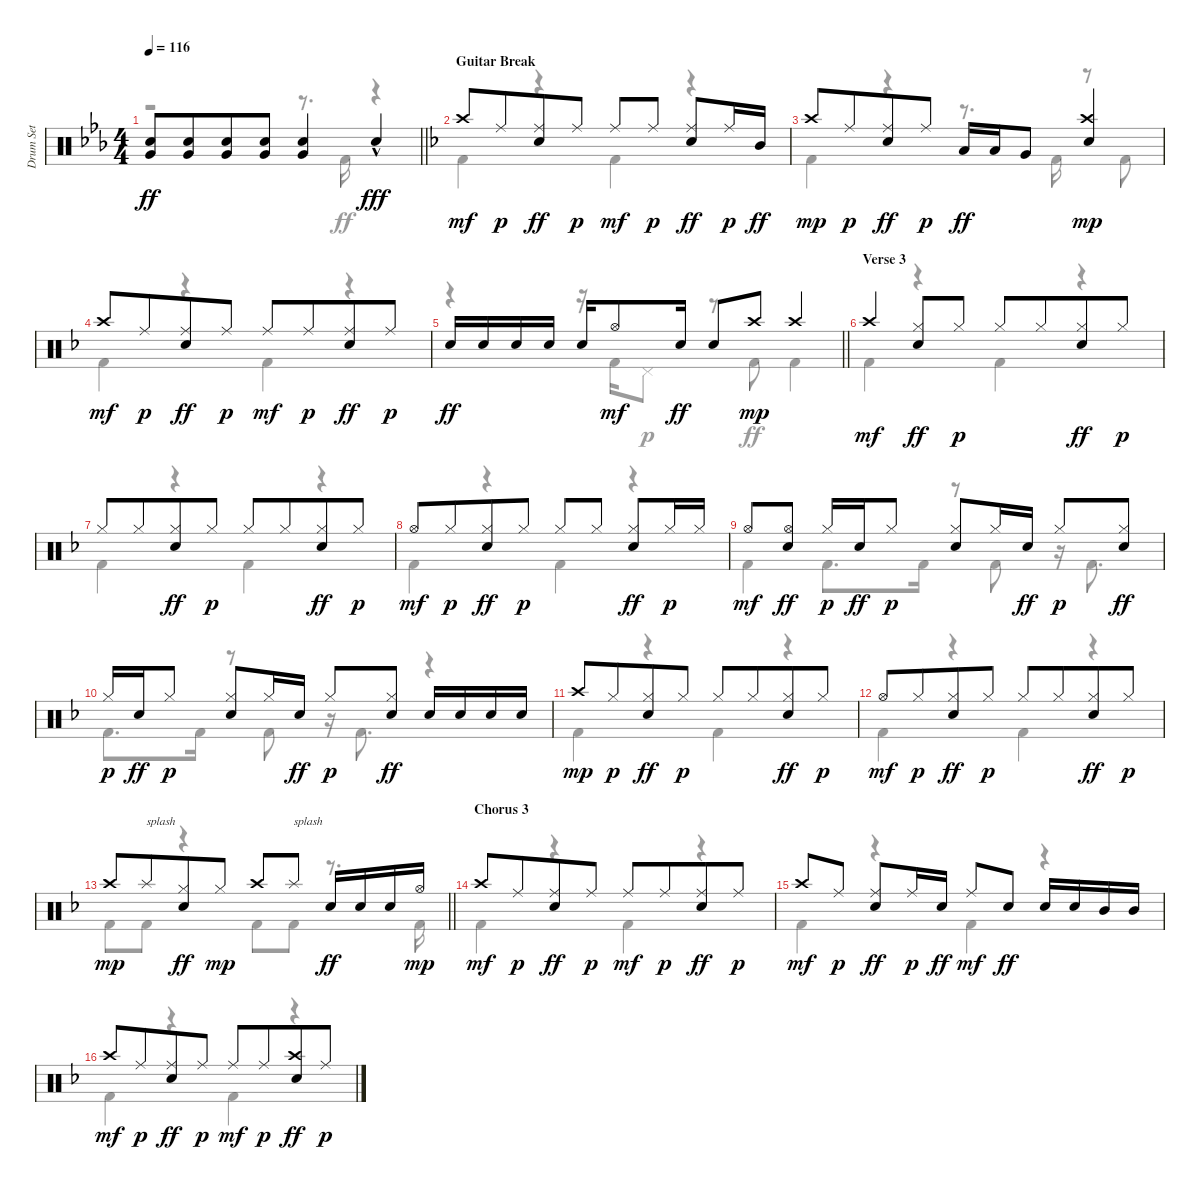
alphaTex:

\track ("Drum Set" "Drum Set") {instrument percussion}
\staff {score}
\articulation defaults
\voice
\ts (4 4)
\tempo 116
\clef neutral
\barLineRight lightlight
\ks eb
("Electric Snare (hit)" "Very Low Tom (hit)").8{dy ff beam Up} ("Electric Snare (hit)" "Very Low Tom (hit)").8{beam Up beam merge} ("Electric Snare (hit)" "Very Low Tom (hit)").8{beam Up} ("Electric Snare (hit)" "Very Low Tom (hit)").8{beam Up} ("Electric Snare (hit)" "Very Low Tom (hit)").4{beam Up} "Electric Snare (hit)"{hac}.4{dy fff} |
\section ("" "Guitar Break")
\ks f "Crash high (hit)".8{dy mf} "Ride (middle)".8{dy p beam merge}
("Ride (middle)" "Electric Snare (hit)").8{dy ff} "Ride (middle)".8{dy p} "Ride (middle)".8{dy mf} "Ride (middle)".8{dy p beam split} ("Ride (middle)" "Electric Snare (hit)").8{dy ff} "Ride (middle)".16{dy p} "Mid Tom (hit)".16{dy ff} |
"Crash high (hit)".8{dy mp} "Ride (middle)".8{dy p beam merge} ("Ride (middle)" "Electric Snare (hit)").8{dy ff} "Ride (middle)".8{dy p} "Low Tom (hit)".16{dy ff} "Low Tom (hit)".16 "Very Low Tom (hit)".8 ("Electric Snare (hit)" "Crash high (hit)").4{dy mp} |
"Crash high (hit)".8{dy mf} "Ride (middle)".8{dy p beam merge} ("Ride (middle)" "Electric Snare (hit)").8{dy ff} "Ride (middle)".8{dy p} "Ride (middle)".8{dy mf} "Ride (middle)".8{dy p beam merge} ("Ride (middle)" "Electric Snare (hit)").8{dy ff} "Ride (middle)".8{dy p} |
\barLineRight lightlight "Electric Snare (hit)".16{dy ff} "Electric Snare (hit)".16 "Electric Snare (hit)".16 "Electric Snare (hit)".16 "Electric Snare (hit)".16 "Hi-Hat (open)".8{dy mf} "Electric Snare (hit)".16{dy ff} "Electric Snare (hit)".8 "Crash high (hit)".8{dy mp} "Crash high (hit)".4
|
\section ("" "Verse 3")
"Crash high (hit)".4{dy mf} ("Hi-Hat (closed)" "Electric Snare (hit)").8{dy ff} "Hi-Hat (closed)".8{dy p} "Hi-Hat (closed)".8 "Hi-Hat (closed)".8{beam merge} ("Hi-Hat (closed)" "Electric Snare (hit)").8{dy ff} "Hi-Hat (closed)".8{dy p} |
"Hi-Hat (closed)".8 "Hi-Hat (closed)".8{beam merge} ("Hi-Hat (closed)" "Electric Snare (hit)").8{dy ff} "Hi-Hat (closed)".8{dy p} "Hi-Hat (closed)".8 "Hi-Hat (closed)".8{beam merge} ("Hi-Hat (closed)" "Electric Snare (hit)").8{dy ff} "Hi-Hat (closed)".8{dy p} |
"Hi-Hat (open)".8{dy mf} "Hi-Hat (closed)".8{dy p beam merge} ("Hi-Hat (closed)" "Electric Snare (hit)").8{dy ff} "Hi-Hat (closed)".8{dy p} "Hi-Hat (closed)".8 "Hi-Hat (closed)".8{beam split} ("Hi-Hat (closed)" "Electric Snare (hit)").8{dy ff} "Hi-Hat (closed)".16{dy p} "Hi-Hat (closed)".16 |
"Hi-Hat (open)".8{dy mf beam merge} ("Hi-Hat (open)" "Electric Snare (hit)").8{dy ff} "Hi-Hat (closed)".16{dy p} "Electric Snare (hit)".16{dy ff} "Hi-Hat (closed)".8{dy p} ("Electric Snare (hit)" "Hi-Hat (closed)").8 "Hi-Hat (closed)".16 "Electric Snare (hit)".16{dy ff} "Hi-Hat (closed)".8{dy p} ("Hi-Hat (closed)" "Electric Snare (hit)").8{dy ff} |
"Hi-Hat (closed)".16{dy p} "Electric Snare (hit)".16{dy ff} "Hi-Hat (closed)".8{dy p} ("Electric Snare (hit)" "Hi-Hat (closed)").8 "Hi-Hat (closed)".16 "Electric Snare (hit)".16{dy ff} "Hi-Hat (closed)".8{dy p} ("Hi-Hat (closed)" "Electric Snare (hit)").8{dy ff} "Electric Snare (hit)".16 "Electric Snare (hit)".16 "Electric Snare (hit)".16 "Electric Snare (hit)".16 |
"Crash high (hit)".8{dy mp} "Hi-Hat (closed)".8{dy p beam merge} ("Hi-Hat (closed)" "Electric Snare (hit)").8{dy ff} "Hi-Hat (closed)".8{dy p} "Hi-Hat (closed)".8 "Hi-Hat (closed)".8{beam merge} ("Hi-Hat (closed)" "Electric Snare (hit)").8{dy ff} "Hi-Hat (closed)".8{dy p} |
"Hi-Hat (open)".8{dy mf} "Hi-Hat (closed)".8{dy p beam merge} ("Hi-Hat (closed)" "Electric Snare (hit)").8{dy ff} "Hi-Hat (closed)".8{dy p} "Hi-Hat (closed)".8 "Hi-Hat (closed)".8{beam merge} ("Hi-Hat (closed)" "Electric Snare (hit)").8{dy ff} "Hi-Hat (closed)".8{dy p} |
\barLineRight lightlight "Crash high (hit)".8{dy mp} "Splash (hit)".8{txt "splash" beam merge}
("Hi-Hat (closed)" "Electric Snare (hit)").8{dy ff} "Hi-Hat (closed)".8{dy mp} "Crash high (hit)".8 "Splash (hit)".8{txt "splash"} "Electric Snare (hit)".16{dy ff} "Electric Snare (hit)".16 "Electric Snare (hit)".16 "Hi-Hat (open)".16{dy mp} |
\section ("" "Chorus 3")
"Crash high (hit)".8{dy mf} "Ride (middle)".8{dy p beam merge} ("Ride (middle)" "Electric Snare (hit)").8{dy ff} "Ride (middle)".8{dy p} "Ride (middle)".8{dy mf} "Ride (middle)".8{dy p beam merge} ("Ride (middle)" "Electric Snare (hit)").8{dy ff} "Ride (middle)".8{dy p} |
"Crash high (hit)".8{dy mf} "Ride (middle)".8{dy p beam split} ("Ride (middle)" "Electric Snare (hit)").8{dy ff} "Ride (middle)".16{dy p} "Electric Snare (hit)".16{dy ff} "Ride (middle)".8{dy mf} "Electric Snare (hit)".8{dy ff} "Electric Snare (hit)".16 "Electric Snare (hit)".16 "Mid Tom (hit)".16 "Mid Tom (hit)".16 |
"Crash high (hit)".8{dy mf} "Ride (middle)".8{dy p beam merge} ("Ride (middle)" "Electric Snare (hit)").8{dy ff} "Ride (middle)".8{dy p} "Ride (middle)".8{dy mf} "Ride (middle)".8{dy p beam merge} ("Crash high (hit)" "Electric Snare (hit)").8{dy ff} "Ride (middle)".8{dy p}
\voice
\clef neutral
\ottava regular
\simile none
\barLineRight lightlight
\ks eb
r.2{dy ff} r.8{d} "Kick (hit) 2".16 r.4 |
\ks f "Kick (hit) 2".4
r.4 "Kick (hit) 2".4 r.4 |
"Kick (hit) 2".4 r.4 r.8{d} "Kick (hit) 2".16 r.8 "Kick (hit) 2".8 |
"Kick (hit) 2".4 r.4 "Kick (hit) 2".4 r.4 |
\barLineRight lightlight
r.4 r.16 "Kick (hit) 2".16 "Pedal Hi-Hat (hit)".8{dy p} r.8 "Kick (hit) 2".8{dy ff} "Kick (hit) 2".4 |
"Kick (hit) 2".4 r.4 "Kick (hit) 2".4 r.4 |
"Kick (hit) 2".4 r.4 "Kick (hit) 2".4 r.4 |
"Kick (hit) 2".4 r.4 "Kick (hit) 2".4 r.4 |
"Kick (hit) 2".4 "Kick (hit) 2".8{d} "Kick (hit) 2".16 r.8 "Kick (hit) 2".8 r.16 "Kick (hit) 2".8{d} |
"Kick (hit) 2".8{d} "Kick (hit) 2".16 r.8 "Kick (hit) 2".8 r.16 "Kick (hit) 2".8{d} r.4 |
"Kick (hit) 2".4 r.4 "Kick (hit) 2".4 r.4 |
"Kick (hit) 2".4 r.4 "Kick (hit) 2".4 r.4 |
\barLineRight lightlight "Kick (hit) 2".8 "Kick (hit) 2".8
r.4 "Kick (hit) 2".8 "Kick (hit) 2".8 r.8{d} "Kick (hit) 2".16 |
"Kick (hit) 2".4 r.4 "Kick (hit) 2".4 r.4 |
"Kick (hit) 2".4 r.4 "Kick (hit) 2".4 r.4 |
"Kick (hit) 2".4 r.4 "Kick (hit) 2".4 r.4
